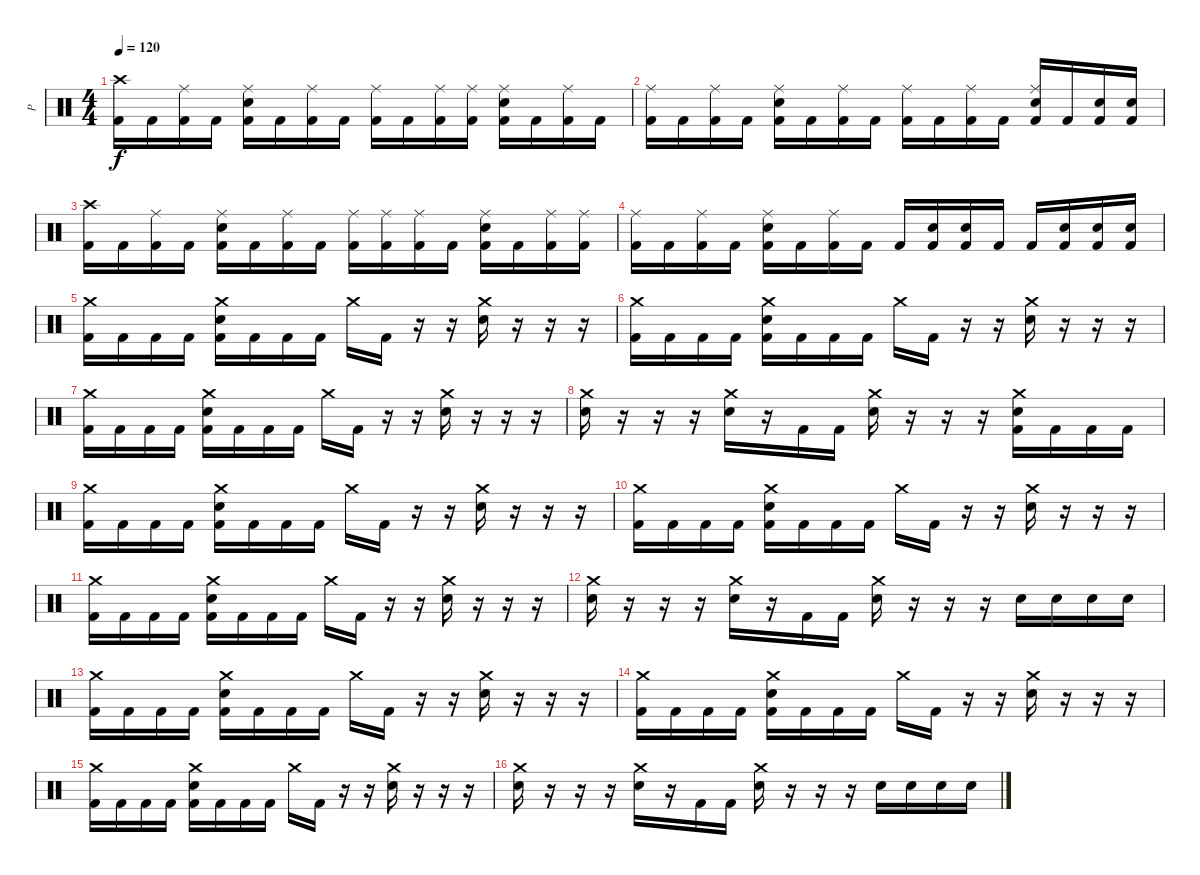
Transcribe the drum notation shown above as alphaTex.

\track ("P" "P") {instrument percussion}
\staff {score}
\articulation defaults
\ts (4 4)
\tempo 120
\clef neutral
\ks c
("Crash high (hit)" "Kick (hit) 2").16{dy f} "Kick (hit) 2".16 ("Ride (middle)" "Kick (hit) 2").16 "Kick (hit) 2".16 ("Ride (middle)" "Electric Snare (hit)" "Kick (hit) 2").16 "Kick (hit) 2".16 ("Ride (middle)" "Kick (hit) 2").16 "Kick (hit) 2".16 ("Ride (middle)" "Kick (hit) 2").16 "Kick (hit) 2".16 ("Ride (middle)" "Kick (hit) 2").16 ("Ride (middle)" "Kick (hit) 2").16 ("Ride (middle)" "Electric Snare (hit)" "Kick (hit) 2").16 "Kick (hit) 2".16 ("Ride (middle)" "Kick (hit) 2").16 "Kick (hit) 2".16 |
("Ride (middle)" "Kick (hit) 2").16 "Kick (hit) 2".16 ("Ride (middle)" "Kick (hit) 2").16 "Kick (hit) 2".16 ("Ride (middle)" "Electric Snare (hit)" "Kick (hit) 2").16 "Kick (hit) 2".16 ("Ride (middle)" "Kick (hit) 2").16 "Kick (hit) 2".16 ("Ride (middle)" "Kick (hit) 2").16 "Kick (hit) 2".16 ("Ride (middle)" "Kick (hit) 2").16 "Kick (hit) 2".16 ("Ride (middle)" "Electric Snare (hit)" "Kick (hit) 2").16 "Kick (hit) 2".16 ("Electric Snare (hit)" "Kick (hit) 2").16 ("Electric Snare (hit)" "Kick (hit) 2").16 |
("Crash high (hit)" "Kick (hit) 2").16 "Kick (hit) 2".16 ("Ride (middle)" "Kick (hit) 2").16 "Kick (hit) 2".16 ("Ride (middle)" "Electric Snare (hit)" "Kick (hit) 2").16 "Kick (hit) 2".16 ("Ride (middle)" "Kick (hit) 2").16 "Kick (hit) 2".16 ("Ride (middle)" "Kick (hit) 2").16 ("Ride (middle)" "Kick (hit) 2").16 ("Ride (middle)" "Kick (hit) 2").16 "Kick (hit) 2".16 ("Ride (middle)" "Electric Snare (hit)" "Kick (hit) 2").16 "Kick (hit) 2".16 ("Ride (middle)" "Kick (hit) 2").16 ("Ride (middle)" "Kick (hit) 2").16 |
("Ride (middle)" "Kick (hit) 2").16 "Kick (hit) 2".16 ("Ride (middle)" "Kick (hit) 2").16 "Kick (hit) 2".16 ("Ride (middle)" "Electric Snare (hit)" "Kick (hit) 2").16 "Kick (hit) 2".16 ("Ride (middle)" "Kick (hit) 2").16 "Kick (hit) 2".16 "Kick (hit) 2".16 ("Electric Snare (hit)" "Kick (hit) 2").16 ("Electric Snare (hit)" "Kick (hit) 2").16 "Kick (hit) 2".16 "Kick (hit) 2".16 ("Electric Snare (hit)" "Kick (hit) 2").16 ("Electric Snare (hit)" "Kick (hit) 2").16 ("Electric Snare (hit)" "Kick (hit) 2").16 |
("Crash medium (hit)" "Kick (hit) 2").16 "Kick (hit) 2".16 "Kick (hit) 2".16 "Kick (hit) 2".16 ("Crash medium (hit)" "Electric Snare (hit)" "Kick (hit) 2").16 "Kick (hit) 2".16 "Kick (hit) 2".16 "Kick (hit) 2".16 "Crash medium (hit)".16 "Kick (hit) 2".16 r.16 r.16 ("Crash medium (hit)" "Electric Snare (hit)").16 r.16 r.16 r.16 |
("Crash medium (hit)" "Kick (hit) 2").16 "Kick (hit) 2".16 "Kick (hit) 2".16 "Kick (hit) 2".16 ("Crash medium (hit)" "Electric Snare (hit)" "Kick (hit) 2").16 "Kick (hit) 2".16 "Kick (hit) 2".16 "Kick (hit) 2".16 "Crash medium (hit)".16 "Kick (hit) 2".16 r.16 r.16 ("Crash medium (hit)" "Electric Snare (hit)").16 r.16 r.16 r.16 |
("Crash medium (hit)" "Kick (hit) 2").16 "Kick (hit) 2".16 "Kick (hit) 2".16 "Kick (hit) 2".16 ("Crash medium (hit)" "Electric Snare (hit)" "Kick (hit) 2").16 "Kick (hit) 2".16 "Kick (hit) 2".16 "Kick (hit) 2".16 "Crash medium (hit)".16 "Kick (hit) 2".16 r.16 r.16 ("Crash medium (hit)" "Electric Snare (hit)").16 r.16 r.16 r.16 |
("Crash medium (hit)" "Electric Snare (hit)").16 r.16 r.16 r.16 ("Crash medium (hit)" "Electric Snare (hit)").16 r.16 "Kick (hit) 2".16 "Kick (hit) 2".16 ("Crash medium (hit)" "Electric Snare (hit)").16 r.16 r.16 r.16 ("Crash medium (hit)" "Electric Snare (hit)" "Kick (hit) 2").16 "Kick (hit) 2".16 "Kick (hit) 2".16 "Kick (hit) 2".16 |
("Crash medium (hit)" "Kick (hit) 2").16 "Kick (hit) 2".16 "Kick (hit) 2".16 "Kick (hit) 2".16 ("Crash medium (hit)" "Electric Snare (hit)" "Kick (hit) 2").16 "Kick (hit) 2".16 "Kick (hit) 2".16 "Kick (hit) 2".16 "Crash medium (hit)".16 "Kick (hit) 2".16 r.16 r.16 ("Crash medium (hit)" "Electric Snare (hit)").16 r.16 r.16 r.16 |
("Crash medium (hit)" "Kick (hit) 2").16 "Kick (hit) 2".16 "Kick (hit) 2".16 "Kick (hit) 2".16 ("Crash medium (hit)" "Electric Snare (hit)" "Kick (hit) 2").16 "Kick (hit) 2".16 "Kick (hit) 2".16 "Kick (hit) 2".16 "Crash medium (hit)".16 "Kick (hit) 2".16 r.16 r.16 ("Crash medium (hit)" "Electric Snare (hit)").16 r.16 r.16 r.16 |
("Crash medium (hit)" "Kick (hit) 2").16 "Kick (hit) 2".16 "Kick (hit) 2".16 "Kick (hit) 2".16 ("Crash medium (hit)" "Electric Snare (hit)" "Kick (hit) 2").16 "Kick (hit) 2".16 "Kick (hit) 2".16 "Kick (hit) 2".16 "Crash medium (hit)".16 "Kick (hit) 2".16 r.16 r.16 ("Crash medium (hit)" "Electric Snare (hit)").16 r.16 r.16 r.16 |
("Crash medium (hit)" "Electric Snare (hit)").16 r.16 r.16 r.16 ("Crash medium (hit)" "Electric Snare (hit)").16 r.16 "Kick (hit) 2".16 "Kick (hit) 2".16 ("Crash medium (hit)" "Electric Snare (hit)").16 r.16 r.16 r.16 "Electric Snare (hit)".16 "Electric Snare (hit)".16 "Electric Snare (hit)".16 "Electric Snare (hit)".16 |
("Crash medium (hit)" "Kick (hit) 2").16 "Kick (hit) 2".16 "Kick (hit) 2".16 "Kick (hit) 2".16 ("Crash medium (hit)" "Electric Snare (hit)" "Kick (hit) 2").16 "Kick (hit) 2".16 "Kick (hit) 2".16 "Kick (hit) 2".16 "Crash medium (hit)".16 "Kick (hit) 2".16 r.16 r.16 ("Crash medium (hit)" "Electric Snare (hit)").16 r.16 r.16 r.16 |
("Crash medium (hit)" "Kick (hit) 2").16 "Kick (hit) 2".16 "Kick (hit) 2".16 "Kick (hit) 2".16 ("Crash medium (hit)" "Electric Snare (hit)" "Kick (hit) 2").16 "Kick (hit) 2".16 "Kick (hit) 2".16 "Kick (hit) 2".16 "Crash medium (hit)".16 "Kick (hit) 2".16 r.16 r.16 ("Crash medium (hit)" "Electric Snare (hit)").16 r.16 r.16 r.16 |
("Crash medium (hit)" "Kick (hit) 2").16 "Kick (hit) 2".16 "Kick (hit) 2".16 "Kick (hit) 2".16 ("Crash medium (hit)" "Electric Snare (hit)" "Kick (hit) 2").16 "Kick (hit) 2".16 "Kick (hit) 2".16 "Kick (hit) 2".16 "Crash medium (hit)".16 "Kick (hit) 2".16 r.16 r.16 ("Crash medium (hit)" "Electric Snare (hit)").16 r.16 r.16 r.16 |
("Crash medium (hit)" "Electric Snare (hit)").16 r.16 r.16 r.16 ("Crash medium (hit)" "Electric Snare (hit)").16 r.16 "Kick (hit) 2".16 "Kick (hit) 2".16 ("Crash medium (hit)" "Electric Snare (hit)").16 r.16 r.16 r.16 "Electric Snare (hit)".16 "Electric Snare (hit)".16 "Electric Snare (hit)".16 "Electric Snare (hit)".16
